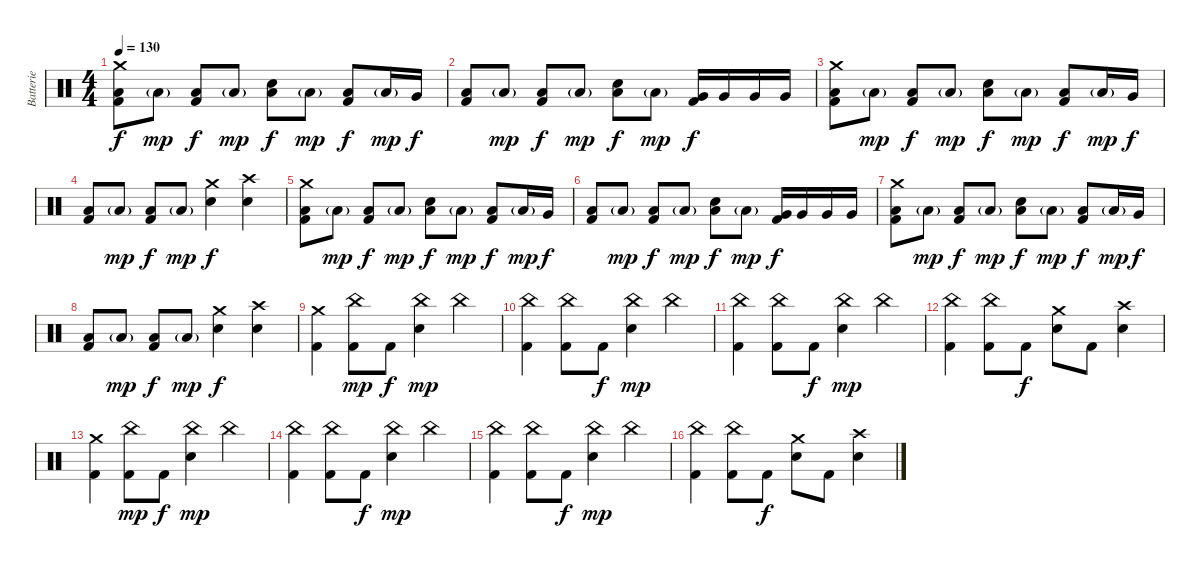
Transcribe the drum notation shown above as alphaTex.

\track ("Batterie" "Batterie") {instrument percussion}
\staff {score}
\articulation defaults
\ts (4 4)
\tempo 130
\clef neutral
\ks c
("Crash medium (hit)" "Low Floor Tom (hit)" "Kick (hit) 2").8{dy f} "Low Floor Tom (hit)"{g}.8{dy mp} ("Low Floor Tom (hit)" "Kick (hit) 2").8{dy f} "Low Floor Tom (hit)"{g}.8{dy mp} ("Electric Snare (hit)" "Low Floor Tom (hit)").8{dy f} "Low Floor Tom (hit)"{g}.8{dy mp} ("Low Floor Tom (hit)" "Kick (hit) 2").8{dy f} "Low Floor Tom (hit)"{g}.16{dy mp} "Very Low Tom (hit)".16{dy f} |
("Low Floor Tom (hit)" "Kick (hit) 2").8 "Low Floor Tom (hit)"{g}.8{dy mp} ("Low Floor Tom (hit)" "Kick (hit) 2").8{dy f} "Low Floor Tom (hit)"{g}.8{dy mp} ("Electric Snare (hit)" "Low Floor Tom (hit)").8{dy f} "Low Floor Tom (hit)"{g}.8{dy mp} ("Very Low Tom (hit)" "Kick (hit) 2").16{dy f} "Very Low Tom (hit)".16 "Very Low Tom (hit)".16 "Very Low Tom (hit)".16 |
("Crash medium (hit)" "Low Floor Tom (hit)" "Kick (hit) 2").8 "Low Floor Tom (hit)"{g}.8{dy mp} ("Low Floor Tom (hit)" "Kick (hit) 2").8{dy f} "Low Floor Tom (hit)"{g}.8{dy mp} ("Electric Snare (hit)" "Low Floor Tom (hit)").8{dy f} "Low Floor Tom (hit)"{g}.8{dy mp} ("Low Floor Tom (hit)" "Kick (hit) 2").8{dy f} "Low Floor Tom (hit)"{g}.16{dy mp} "Very Low Tom (hit)".16{dy f} |
("Low Floor Tom (hit)" "Kick (hit) 2").8 "Low Floor Tom (hit)"{g}.8{dy mp} ("Low Floor Tom (hit)" "Kick (hit) 2").8{dy f} "Low Floor Tom (hit)"{g}.8{dy mp} ("Crash medium (hit)" "Electric Snare (hit)").4{dy f} ("Crash high (hit)" "Electric Snare (hit)").4 |
("Crash medium (hit)" "Low Floor Tom (hit)" "Kick (hit) 2").8 "Low Floor Tom (hit)"{g}.8{dy mp} ("Low Floor Tom (hit)" "Kick (hit) 2").8{dy f} "Low Floor Tom (hit)"{g}.8{dy mp} ("Electric Snare (hit)" "Low Floor Tom (hit)").8{dy f} "Low Floor Tom (hit)"{g}.8{dy mp} ("Low Floor Tom (hit)" "Kick (hit) 2").8{dy f} "Low Floor Tom (hit)"{g}.16{dy mp} "Very Low Tom (hit)".16{dy f} |
("Low Floor Tom (hit)" "Kick (hit) 2").8 "Low Floor Tom (hit)"{g}.8{dy mp} ("Low Floor Tom (hit)" "Kick (hit) 2").8{dy f} "Low Floor Tom (hit)"{g}.8{dy mp} ("Electric Snare (hit)" "Low Floor Tom (hit)").8{dy f} "Low Floor Tom (hit)"{g}.8{dy mp} ("Very Low Tom (hit)" "Kick (hit) 2").16{dy f} "Very Low Tom (hit)".16 "Very Low Tom (hit)".16 "Very Low Tom (hit)".16 |
("Crash medium (hit)" "Low Floor Tom (hit)" "Kick (hit) 2").8 "Low Floor Tom (hit)"{g}.8{dy mp} ("Low Floor Tom (hit)" "Kick (hit) 2").8{dy f} "Low Floor Tom (hit)"{g}.8{dy mp} ("Electric Snare (hit)" "Low Floor Tom (hit)").8{dy f} "Low Floor Tom (hit)"{g}.8{dy mp} ("Low Floor Tom (hit)" "Kick (hit) 2").8{dy f} "Low Floor Tom (hit)"{g}.16{dy mp} "Very Low Tom (hit)".16{dy f} |
("Low Floor Tom (hit)" "Kick (hit) 2").8 "Low Floor Tom (hit)"{g}.8{dy mp} ("Low Floor Tom (hit)" "Kick (hit) 2").8{dy f} "Low Floor Tom (hit)"{g}.8{dy mp} ("Crash medium (hit)" "Electric Snare (hit)").4{dy f} ("Crash high (hit)" "Electric Snare (hit)").4 |
("Crash medium (hit)" "Kick (hit) 2").4 ("China (hit)" "Kick (hit) 2").8{dy mp} "Kick (hit) 2".8{dy f} ("China (hit)" "Electric Snare (hit)").4{dy mp} "China (hit)".4 |
("China (hit)" "Kick (hit) 2").4 ("China (hit)" "Kick (hit) 2").8 "Kick (hit) 2".8{dy f} ("China (hit)" "Electric Snare (hit)").4{dy mp} "China (hit)".4 |
("China (hit)" "Kick (hit) 2").4 ("China (hit)" "Kick (hit) 2").8 "Kick (hit) 2".8{dy f} ("China (hit)" "Electric Snare (hit)").4{dy mp} "China (hit)".4 |
("China (hit)" "Kick (hit) 2").4 ("China (hit)" "Kick (hit) 2").8 "Kick (hit) 2".8{dy f} ("Crash medium (hit)" "Electric Snare (hit)").8 "Kick (hit) 2".8 ("Crash high (hit)" "Electric Snare (hit)").4 |
("Crash medium (hit)" "Kick (hit) 2").4 ("China (hit)" "Kick (hit) 2").8{dy mp} "Kick (hit) 2".8{dy f} ("China (hit)" "Electric Snare (hit)").4{dy mp} "China (hit)".4 |
("China (hit)" "Kick (hit) 2").4 ("China (hit)" "Kick (hit) 2").8 "Kick (hit) 2".8{dy f} ("China (hit)" "Electric Snare (hit)").4{dy mp} "China (hit)".4 |
("China (hit)" "Kick (hit) 2").4 ("China (hit)" "Kick (hit) 2").8 "Kick (hit) 2".8{dy f} ("China (hit)" "Electric Snare (hit)").4{dy mp} "China (hit)".4 |
("China (hit)" "Kick (hit) 2").4 ("China (hit)" "Kick (hit) 2").8 "Kick (hit) 2".8{dy f} ("Crash medium (hit)" "Electric Snare (hit)").8 "Kick (hit) 2".8 ("Crash high (hit)" "Electric Snare (hit)").4
